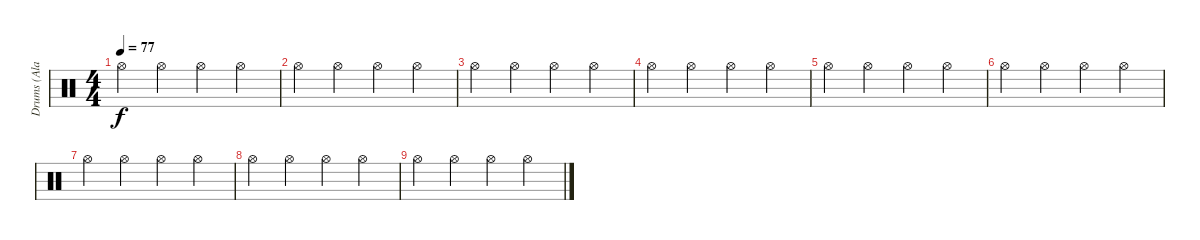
\track ("Drums (Alan White)" "Drums (Ala") {instrument percussion}
\staff {score}
\articulation defaults
\ts (4 4)
\tempo 77
\clef neutral
\ks c "Hi-Hat (open)".4{dy f} "Hi-Hat (open)".4 "Hi-Hat (open)".4 "Hi-Hat (open)".4
|
"Hi-Hat (open)".4 "Hi-Hat (open)".4 "Hi-Hat (open)".4 "Hi-Hat (open)".4 |
"Hi-Hat (open)".4 "Hi-Hat (open)".4 "Hi-Hat (open)".4 "Hi-Hat (open)".4 |
"Hi-Hat (open)".4 "Hi-Hat (open)".4 "Hi-Hat (open)".4 "Hi-Hat (open)".4 |
"Hi-Hat (open)".4 "Hi-Hat (open)".4 "Hi-Hat (open)".4 "Hi-Hat (open)".4 |
"Hi-Hat (open)".4{volume 10} "Hi-Hat (open)".4 "Hi-Hat (open)".4 "Hi-Hat (open)".4 |
"Hi-Hat (open)".4 "Hi-Hat (open)".4 "Hi-Hat (open)".4 "Hi-Hat (open)".4 |
"Hi-Hat (open)".4{volume 0} "Hi-Hat (open)".4 "Hi-Hat (open)".4 "Hi-Hat (open)".4 |
"Hi-Hat (open)".4 "Hi-Hat (open)".4 "Hi-Hat (open)".4 "Hi-Hat (open)".4
